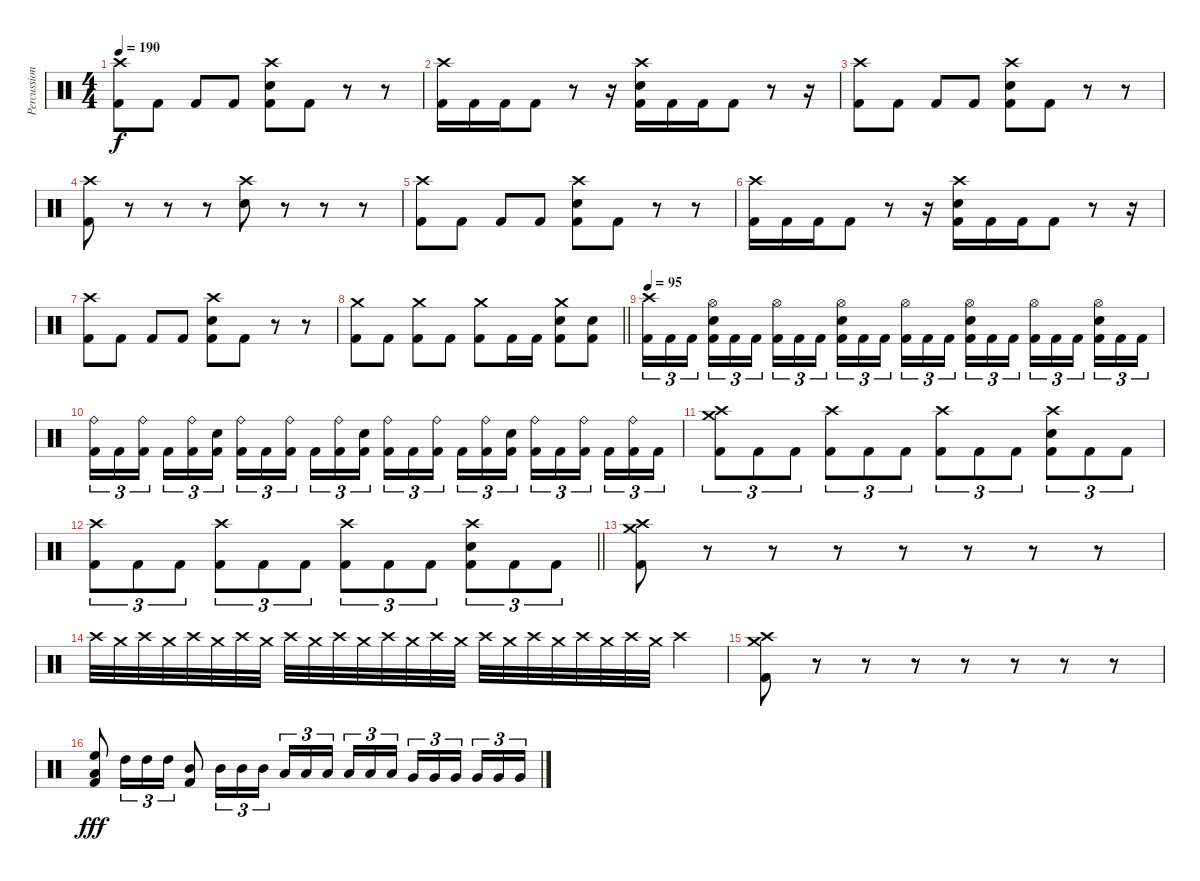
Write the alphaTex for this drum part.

\track ("Percussion" "Percussion") {instrument percussion}
\staff {score}
\articulation defaults
\ts (4 4)
\tempo 190
\clef neutral
\ks c
("Crash high (hit)" "Kick (hit) 2").8{dy f} "Kick (hit) 2".8 "Kick (hit) 2".8 "Kick (hit) 2".8 ("Crash high (hit)" "Snare (hit) 2" "Kick (hit) 2").8 "Kick (hit) 2".8 r.8 r.8 |
("Crash high (hit)" "Kick (hit) 2").16 "Kick (hit) 2".16 "Kick (hit) 2".16 "Kick (hit) 2".8 r.8 r.16 ("Crash high (hit)" "Snare (hit) 2" "Kick (hit) 2").16 "Kick (hit) 2".16 "Kick (hit) 2".16 "Kick (hit) 2".8 r.8 r.16 |
("Crash high (hit)" "Kick (hit) 2").8 "Kick (hit) 2".8 "Kick (hit) 2".8 "Kick (hit) 2".8 ("Crash high (hit)" "Snare (hit) 2" "Kick (hit) 2").8 "Kick (hit) 2".8 r.8 r.8 |
("Crash high (hit)" "Kick (hit) 2").8 r.8 r.8 r.8 ("Crash high (hit)" "Snare (hit) 2").8 r.8 r.8 r.8 |
("Crash high (hit)" "Kick (hit) 2").8 "Kick (hit) 2".8 "Kick (hit) 2".8 "Kick (hit) 2".8 ("Crash high (hit)" "Snare (hit) 2" "Kick (hit) 2").8 "Kick (hit) 2".8 r.8 r.8 |
("Crash high (hit)" "Kick (hit) 2").16 "Kick (hit) 2".16 "Kick (hit) 2".16 "Kick (hit) 2".8 r.8 r.16 ("Crash high (hit)" "Snare (hit) 2" "Kick (hit) 2").16 "Kick (hit) 2".16 "Kick (hit) 2".16 "Kick (hit) 2".8 r.8 r.16 |
("Crash high (hit)" "Kick (hit) 2").8 "Kick (hit) 2".8 "Kick (hit) 2".8 "Kick (hit) 2".8 ("Crash high (hit)" "Snare (hit) 2" "Kick (hit) 2").8 "Kick (hit) 2".8 r.8 r.8 |
\barLineRight lightlight
("Crash medium (hit)" "Kick (hit) 2").8 "Kick (hit) 2".8 ("Crash medium (hit)" "Kick (hit) 2").8 "Kick (hit) 2".8 ("Crash medium (hit)" "Kick (hit) 2").8 "Kick (hit) 2".16 "Kick (hit) 2".16 ("Crash medium (hit)" "Snare (hit) 2" "Kick (hit) 2").8 ("Snare (hit) 2" "Kick (hit) 2").8 |
\tempo 95
("Crash high (hit)" "Kick (hit) 2").16{tu (3 2)} "Kick (hit) 2".16{tu (3 2)} "Kick (hit) 2".16{tu (3 2) beam splitsecondary} ("Hi-Hat (open)" "Snare (hit) 2" "Kick (hit) 2").16{tu (3 2)} "Kick (hit) 2".16{tu (3 2)} "Kick (hit) 2".16{tu (3 2)} ("Hi-Hat (open)" "Kick (hit) 2").16{tu (3 2)} "Kick (hit) 2".16{tu (3 2)} "Kick (hit) 2".16{tu (3 2) beam splitsecondary} ("Hi-Hat (open)" "Snare (hit) 2" "Kick (hit) 2").16{tu (3 2)} "Kick (hit) 2".16{tu (3 2)} "Kick (hit) 2".16{tu (3 2)} ("Hi-Hat (open)" "Kick (hit) 2").16{tu (3 2)} "Kick (hit) 2".16{tu (3 2)} "Kick (hit) 2".16{tu (3 2) beam splitsecondary} ("Hi-Hat (open)" "Snare (hit) 2" "Kick (hit) 2").16{tu (3 2)} "Kick (hit) 2".16{tu (3 2)} "Kick (hit) 2".16{tu (3 2)} ("Hi-Hat (open)" "Kick (hit) 2").16{tu (3 2)} "Kick (hit) 2".16{tu (3 2)} "Kick (hit) 2".16{tu (3 2) beam splitsecondary} ("Hi-Hat (open)" "Snare (hit) 2" "Kick (hit) 2").16{tu (3 2)} "Kick (hit) 2".16{tu (3 2)} "Kick (hit) 2".16{tu (3 2)} |
("Ride (bell)" "Kick (hit) 2").16{tu (3 2)} "Kick (hit) 2".16{tu (3 2)} ("Ride (bell)" "Kick (hit) 2").16{tu (3 2) beam splitsecondary} "Kick (hit) 2".16{tu (3 2)} ("Ride (bell)" "Kick (hit) 2").16{tu (3 2)} ("Snare (hit) 2" "Kick (hit) 2").16{tu (3 2)} ("Ride (bell)" "Kick (hit) 2").16{tu (3 2)} "Kick (hit) 2".16{tu (3 2)} ("Ride (bell)" "Kick (hit) 2").16{tu (3 2) beam splitsecondary} "Kick (hit) 2".16{tu (3 2)} ("Ride (bell)" "Kick (hit) 2").16{tu (3 2)} ("Snare (hit) 2" "Kick (hit) 2").16{tu (3 2)} ("Ride (bell)" "Kick (hit) 2").16{tu (3 2)} "Kick (hit) 2".16{tu (3 2)} ("Ride (bell)" "Kick (hit) 2").16{tu (3 2) beam splitsecondary} "Kick (hit) 2".16{tu (3 2)} ("Ride (bell)" "Kick (hit) 2").16{tu (3 2)} ("Snare (hit) 2" "Kick (hit) 2").16{tu (3 2)} ("Ride (bell)" "Kick (hit) 2").16{tu (3 2)} "Kick (hit) 2".16{tu (3 2)} ("Ride (bell)" "Kick (hit) 2").16{tu (3 2) beam splitsecondary} "Kick (hit) 2".16{tu (3 2)} ("Ride (bell)" "Kick (hit) 2").16{tu (3 2)} "Kick (hit) 2".16{tu (3 2)} |
("Crash high (hit)" "Crash medium (hit)" "Kick (hit) 2").8{tu (3 2)} "Kick (hit) 2".8{tu (3 2)} "Kick (hit) 2".8{tu (3 2)} ("Crash high (hit)" "Kick (hit) 2").8{tu (3 2)} "Kick (hit) 2".8{tu (3 2)} "Kick (hit) 2".8{tu (3 2)} ("Crash high (hit)" "Kick (hit) 2").8{tu (3 2)} "Kick (hit) 2".8{tu (3 2)} "Kick (hit) 2".8{tu (3 2)} ("Crash high (hit)" "Snare (hit) 2" "Kick (hit) 2").8{tu (3 2)} "Kick (hit) 2".8{tu (3 2)} "Kick (hit) 2".8{tu (3 2)} |
\barLineRight lightlight
("Crash high (hit)" "Kick (hit) 2").8{tu (3 2)} "Kick (hit) 2".8{tu (3 2)} "Kick (hit) 2".8{tu (3 2)} ("Crash high (hit)" "Kick (hit) 2").8{tu (3 2)} "Kick (hit) 2".8{tu (3 2)} "Kick (hit) 2".8{tu (3 2)} ("Crash high (hit)" "Kick (hit) 2").8{tu (3 2)} "Kick (hit) 2".8{tu (3 2)} "Kick (hit) 2".8{tu (3 2)} ("Crash high (hit)" "Snare (hit) 2" "Kick (hit) 2").8{tu (3 2)} "Kick (hit) 2".8{tu (3 2)} "Kick (hit) 2".8{tu (3 2)} |
("Crash high (hit)" "Crash medium (hit)" "Kick (hit) 2").8 r.8 r.8 r.8 r.8 r.8 r.8 r.8{volume 0} |
"Crash high (hit)".32{volume 13} "Crash medium (hit)".32 "Crash high (hit)".32 "Crash medium (hit)".32 "Crash high (hit)".32 "Crash medium (hit)".32 "Crash high (hit)".32 "Crash medium (hit)".32 "Crash high (hit)".32 "Crash medium (hit)".32 "Crash high (hit)".32 "Crash medium (hit)".32 "Crash high (hit)".32 "Crash medium (hit)".32 "Crash high (hit)".32 "Crash medium (hit)".32 "Crash high (hit)".32 "Crash medium (hit)".32 "Crash high (hit)".32 "Crash medium (hit)".32 "Crash high (hit)".32 "Crash medium (hit)".32 "Crash high (hit)".32 "Crash medium (hit)".32 "Crash high (hit)".4 |
("Crash high (hit)" "Crash medium (hit)" "Kick (hit) 2").8 r.8 r.8 r.8 r.8 r.8 r.8 r.8 |
("High Floor Tom (hit)" "Low Floor Tom (hit)" "Kick (hit) 2").8{dy fff} "High Tom (hit)".16{tu (3 2)} "High Tom (hit)".16{tu (3 2)} "High Tom (hit)".16{tu (3 2)} ("Mid Tom (hit)" "Kick (hit) 2").8 "Mid Tom (hit)".16{tu (3 2)} "Mid Tom (hit)".16{tu (3 2)} "Mid Tom (hit)".16{tu (3 2)} "Low Tom (hit)".16{tu (3 2)} "Low Tom (hit)".16{tu (3 2)} "Low Tom (hit)".16{tu (3 2) beam splitsecondary} "Low Tom (hit)".16{tu (3 2)} "Low Tom (hit)".16{tu (3 2)} "Low Tom (hit)".16{tu (3 2)} "Very Low Tom (hit)".16{tu (3 2)} "Very Low Tom (hit)".16{tu (3 2)} "Very Low Tom (hit)".16{tu (3 2) beam splitsecondary} "Very Low Tom (hit)".16{tu (3 2)} "Very Low Tom (hit)".16{tu (3 2)} "Very Low Tom (hit)".16{tu (3 2)}
